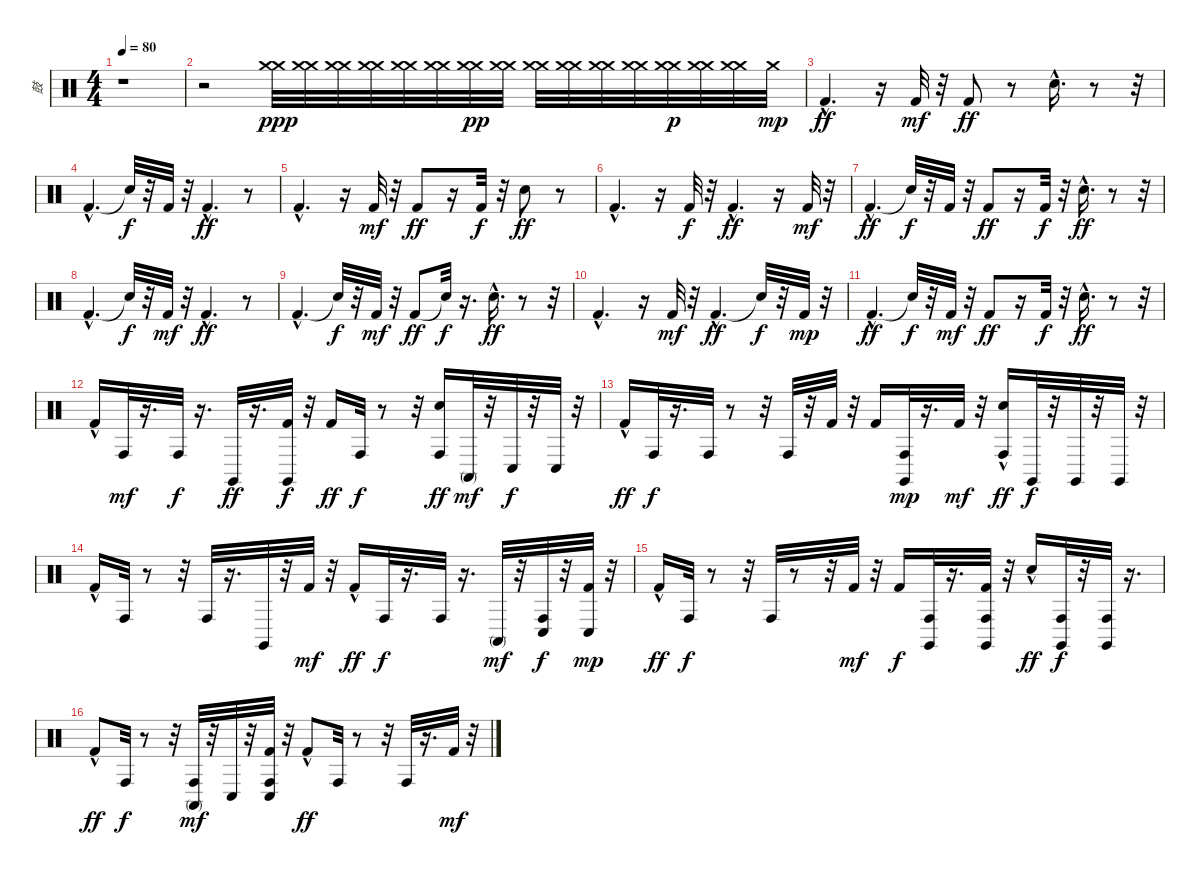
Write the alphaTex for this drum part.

\track ("鼓" "鼓") {instrument percussion}
\staff {score}
\articulation defaults
\ts (4 4)
\tempo 80
\clef neutral
\ks c
r.1{dy ppp} |
r.2 ("Crash medium (hit)" "Crash medium (hit)").32 ("Crash medium (hit)" "Crash medium (hit)").32 ("Crash medium (hit)" "Crash medium (hit)").32 ("Crash medium (hit)" "Crash medium (hit)").32 ("Crash medium (hit)" "Crash medium (hit)").32 ("Crash medium (hit)" "Crash medium (hit)").32 ("Crash medium (hit)" "Crash medium (hit)").32{dy pp} ("Crash medium (hit)" "Crash medium (hit)").32 ("Crash medium (hit)" "Crash medium (hit)").32 ("Crash medium (hit)" "Crash medium (hit)").32 ("Crash medium (hit)" "Crash medium (hit)").32 ("Crash medium (hit)" "Crash medium (hit)").32 ("Crash medium (hit)" "Crash medium (hit)").32{dy p} ("Crash medium (hit)" "Crash medium (hit)").32 ("Crash medium (hit)" "Crash medium (hit)").32 "Crash medium (hit)".32{dy mp} |
"Kick (hit) 2"{hac}.4{d dy ff} r.16 "Kick (hit) 2".32{dy mf} r.32 "Kick (hit) 2".8{dy ff} r.8 "Hand Clap (hit)"{hac}.16{d} r.8 r.32 |
"Kick (hit) 2"{hac}.4{d} "Snare (hit)"{t}.32{dy f} r.32 "Kick (hit) 2".32 r.32 "Kick (hit) 2"{hac}.4{d dy ff} r.8 |
"Kick (hit) 2"{hac}.4{d} r.16 "Kick (hit) 2".32{dy mf} r.32 "Kick (hit) 2".8{dy ff} r.16 "Kick (hit) 2".32{dy f} r.32 "Hand Clap (hit)".8{dy ff} r.8 |
"Kick (hit) 2"{hac}.4{d} r.16 "Kick (hit) 2".32{dy f} r.32 "Kick (hit) 2"{hac}.4{d dy ff} r.16 "Kick (hit) 2".32{dy mf} r.32 |
"Kick (hit) 2"{hac}.4{d dy ff} "Snare (hit)"{t}.32{dy f} r.32 "Kick (hit) 2".32 r.32 "Kick (hit) 2".8{dy ff} r.16 "Kick (hit) 2".32{dy f} r.32 "Hand Clap (hit)"{hac}.16{d dy ff} r.8 r.32 |
"Kick (hit) 2"{hac}.4{d} "Snare (hit)"{t}.32{dy f} r.32 "Kick (hit) 2".32{dy mf} r.32 "Kick (hit) 2"{hac}.4{d dy ff} r.8 |
"Kick (hit) 2"{hac}.4{d} "Snare (hit)"{t}.32{dy f} r.32 "Kick (hit) 2".32{dy mf} r.32 "Kick (hit) 2".8{dy ff} "Snare (hit)"{t}.32{dy f} r.16{d} "Hand Clap (hit)"{hac}.16{d dy ff} r.8 r.32 |
"Kick (hit) 2"{hac}.4{d} r.16 "Kick (hit) 2".32{dy mf} r.32 "Kick (hit) 2"{hac}.4{d dy ff} "Snare (hit)"{t}.32{dy f} r.32 "Kick (hit) 2".32{dy mp} r.32 |
"Kick (hit) 2"{hac}.4{d dy ff} "Snare (hit)"{t}.32{dy f} r.32 "Kick (hit) 2".32{dy mf} r.32 "Kick (hit) 2".8{dy ff} r.16 "Kick (hit) 2".32{dy f} r.32 "Hand Clap (hit)"{hac}.16{d dy ff} r.8 r.32 |
"Kick (hit) 2"{hac}.16 "Conga high (hit)".32{dy mf} r.16{d} "Conga high (hit)".32{dy f} r.16{d} "Claves (hit)".32{dy ff} r.16{d} ("Kick (hit) 2" "Claves (hit)").32{dy f} r.32 "Kick (hit) 2".16{dy ff} "Conga high (hit)".32{dy f} r.8 r.32 ("Hand Clap (hit)" "Conga high (hit)").16{dy ff} "Conga high (mute)".32{dy mf} r.32 "Conga low (hit)".32{dy f} r.32 "Conga low (hit)".32 r.32 |
"Kick (hit) 2"{hac}.16{dy ff} "Conga high (hit)".32{dy f} r.16{d} "Conga high (hit)".32 r.8 r.32 "Conga high (hit)".32 r.32 "Kick (hit) 2".32 r.32 "Kick (hit) 2".16 ("Conga high (hit)" "Claves (hit)").32{dy mp} r.16{d} "Kick (hit) 2".32{dy mf} r.32 ("Hand Clap (hit)"{hac} "Conga high (hit)").16{dy ff} "Claves (hit)".32{dy f} r.32 "Claves (hit)".32 r.32 "Claves (hit)".32 r.32 |
"Kick (hit) 2"{hac}.16 "Conga high (hit)".32 r.8 r.32 "Conga high (hit)".32 r.16{d} "Claves (hit)".32 r.32 "Kick (hit) 2".32{dy mf} r.32 "Kick (hit) 2"{hac}.16{dy ff} "Conga high (hit)".32{dy f} r.16{d} "Conga high (hit)".32 r.16{d} "Conga high (mute)".32{dy mf} r.32 ("Conga high (hit)" "Conga low (hit)").32{dy f} r.32 ("Kick (hit) 2" "Conga low (hit)").32{dy mp} r.32 |
"Kick (hit) 2"{hac}.16{dy ff} "Conga high (hit)".32{dy f} r.8 r.32 "Conga high (hit)".32 r.8 r.32 "Kick (hit) 2".32{dy mf} r.32 "Kick (hit) 2".16{dy f} ("Conga high (hit)" "Claves (hit)").32 r.16{d} ("Kick (hit) 2" "Conga high (hit)" "Claves (hit)").32 r.32 "Hand Clap (hit)"{hac}.16{dy ff} ("Conga high (hit)" "Claves (hit)").32{dy f} r.32 ("Conga high (hit)" "Claves (hit)").32 r.16{d} |
"Kick (hit) 2"{hac}.8{dy ff} "Conga high (hit)".32{dy f} r.8 r.32 ("Conga high (hit)" "Conga high (mute)").32{dy mf} r.32 "Conga low (hit)".32 r.32 ("Kick (hit) 2" "Conga high (hit)" "Conga low (hit)").32 r.32 "Kick (hit) 2"{hac}.8{dy ff} "Conga high (hit)".32 r.8 r.32 "Conga high (hit)".32 r.16{d} "Kick (hit) 2".32{dy mf} r.32
